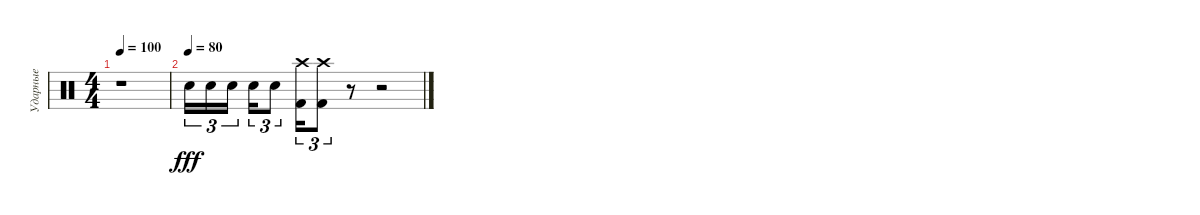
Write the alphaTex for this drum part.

\track ("Ударные" "Ударные") {instrument percussion}
\staff
\articulation defaults
\ts (4 4)
\tempo 100
\clef neutral
\ks c
r.1{dy p} |
\tempo (80)
"Snare (hit) 2".16{tu (3 2) dy fff} "Snare (hit) 2".16{tu (3 2)} "Snare (hit) 2".16{tu (3 2) beam splitsecondary} "Snare (hit) 2".16{tu (3 2)} "Snare (hit) 2".8{tu (3 2)} ("Kick (hit) 2" "Crash high (hit)").16{tu (3 2)} ("Kick (hit) 2" "Crash high (hit)").8{tu (3 2)} r.8 r.2
